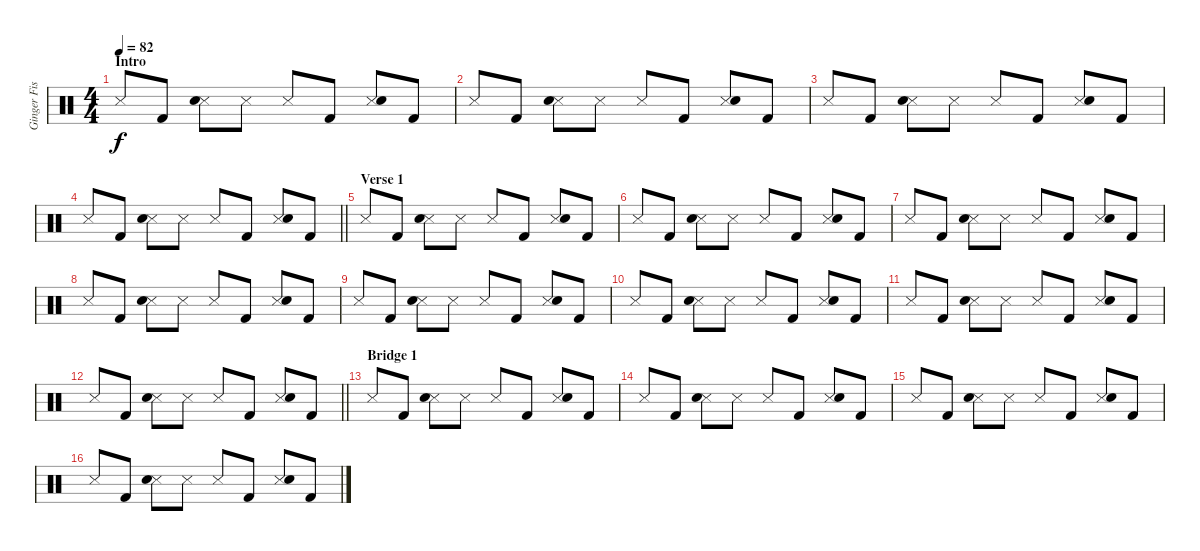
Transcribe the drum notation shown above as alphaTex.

\track ("Ginger Fish" "Ginger Fis") {instrument percussion}
\staff {score}
\articulation defaults
\ts (4 4)
\section ("" "Intro")
\tempo 82
\clef neutral
\ks c "Metronome (hit)".8{dy f} "Kick (hit) 2".8
("Metronome (hit)" "Snare (hit) 2").8 "Metronome (hit)".8 "Metronome (hit)".8 "Kick (hit) 2".8 ("Metronome (hit)" "Snare (hit) 2").8 "Kick (hit) 2".8 |
"Metronome (hit)".8 "Kick (hit) 2".8 ("Metronome (hit)" "Snare (hit) 2").8 "Metronome (hit)".8 "Metronome (hit)".8 "Kick (hit) 2".8 ("Metronome (hit)" "Snare (hit) 2").8 "Kick (hit) 2".8 |
"Metronome (hit)".8 "Kick (hit) 2".8 ("Metronome (hit)" "Snare (hit) 2").8 "Metronome (hit)".8 "Metronome (hit)".8 "Kick (hit) 2".8 ("Metronome (hit)" "Snare (hit) 2").8 "Kick (hit) 2".8 |
\barLineRight lightlight "Metronome (hit)".8 "Kick (hit) 2".8
("Metronome (hit)" "Snare (hit) 2").8 "Metronome (hit)".8 "Metronome (hit)".8 "Kick (hit) 2".8 ("Metronome (hit)" "Snare (hit) 2").8 "Kick (hit) 2".8 |
\section ("" "Verse 1")
"Metronome (hit)".8 "Kick (hit) 2".8 ("Metronome (hit)" "Snare (hit) 2").8 "Metronome (hit)".8 "Metronome (hit)".8 "Kick (hit) 2".8 ("Metronome (hit)" "Snare (hit) 2").8 "Kick (hit) 2".8 |
"Metronome (hit)".8 "Kick (hit) 2".8 ("Metronome (hit)" "Snare (hit) 2").8 "Metronome (hit)".8 "Metronome (hit)".8 "Kick (hit) 2".8 ("Metronome (hit)" "Snare (hit) 2").8 "Kick (hit) 2".8 |
"Metronome (hit)".8 "Kick (hit) 2".8 ("Metronome (hit)" "Snare (hit) 2").8 "Metronome (hit)".8 "Metronome (hit)".8 "Kick (hit) 2".8 ("Metronome (hit)" "Snare (hit) 2").8 "Kick (hit) 2".8 |
"Metronome (hit)".8 "Kick (hit) 2".8 ("Metronome (hit)" "Snare (hit) 2").8 "Metronome (hit)".8 "Metronome (hit)".8 "Kick (hit) 2".8 ("Metronome (hit)" "Snare (hit) 2").8 "Kick (hit) 2".8 |
"Metronome (hit)".8 "Kick (hit) 2".8 ("Metronome (hit)" "Snare (hit) 2").8 "Metronome (hit)".8 "Metronome (hit)".8 "Kick (hit) 2".8 ("Metronome (hit)" "Snare (hit) 2").8 "Kick (hit) 2".8 |
"Metronome (hit)".8 "Kick (hit) 2".8 ("Metronome (hit)" "Snare (hit) 2").8 "Metronome (hit)".8 "Metronome (hit)".8 "Kick (hit) 2".8 ("Metronome (hit)" "Snare (hit) 2").8 "Kick (hit) 2".8 |
"Metronome (hit)".8 "Kick (hit) 2".8 ("Metronome (hit)" "Snare (hit) 2").8 "Metronome (hit)".8 "Metronome (hit)".8 "Kick (hit) 2".8 ("Metronome (hit)" "Snare (hit) 2").8 "Kick (hit) 2".8 |
\barLineRight lightlight "Metronome (hit)".8 "Kick (hit) 2".8
("Metronome (hit)" "Snare (hit) 2").8 "Metronome (hit)".8 "Metronome (hit)".8 "Kick (hit) 2".8 ("Metronome (hit)" "Snare (hit) 2").8 "Kick (hit) 2".8 |
\section ("" "Bridge 1")
"Metronome (hit)".8 "Kick (hit) 2".8 ("Metronome (hit)" "Snare (hit) 2").8 "Metronome (hit)".8 "Metronome (hit)".8 "Kick (hit) 2".8 ("Metronome (hit)" "Snare (hit) 2").8 "Kick (hit) 2".8 |
"Metronome (hit)".8 "Kick (hit) 2".8 ("Metronome (hit)" "Snare (hit) 2").8 "Metronome (hit)".8 "Metronome (hit)".8 "Kick (hit) 2".8 ("Metronome (hit)" "Snare (hit) 2").8 "Kick (hit) 2".8 |
"Metronome (hit)".8 "Kick (hit) 2".8 ("Metronome (hit)" "Snare (hit) 2").8 "Metronome (hit)".8 "Metronome (hit)".8 "Kick (hit) 2".8 ("Metronome (hit)" "Snare (hit) 2").8 "Kick (hit) 2".8 |
"Metronome (hit)".8 "Kick (hit) 2".8 ("Metronome (hit)" "Snare (hit) 2").8 "Metronome (hit)".8 "Metronome (hit)".8 "Kick (hit) 2".8 ("Metronome (hit)" "Snare (hit) 2").8 "Kick (hit) 2".8
